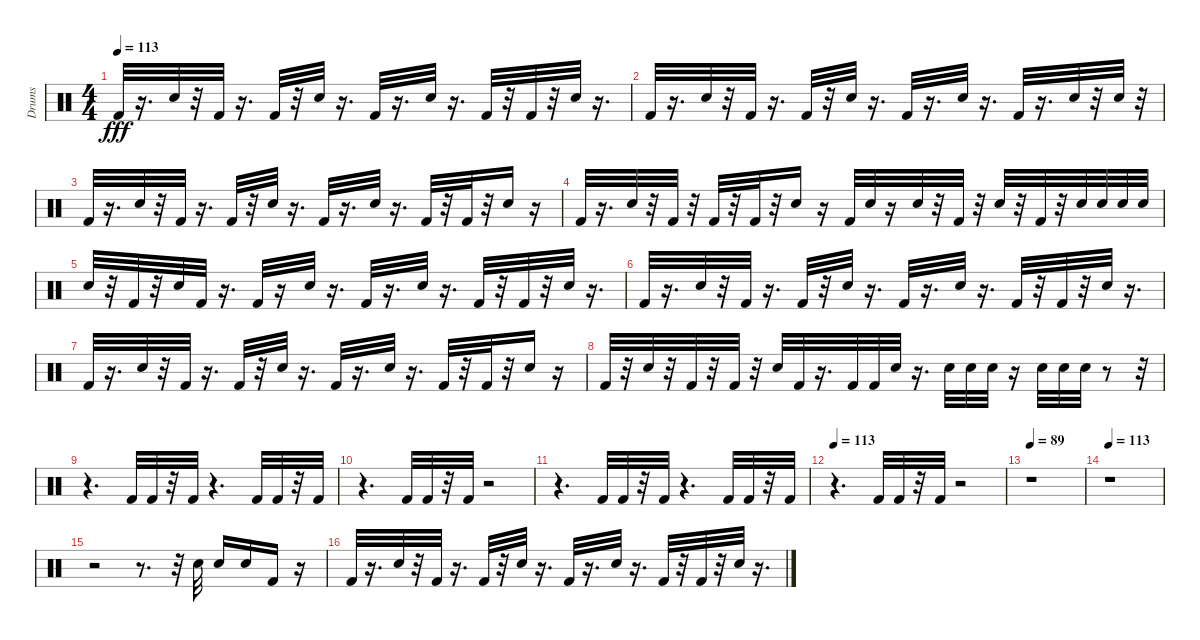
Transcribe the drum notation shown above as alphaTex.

\track ("Drums" "Drums") {instrument percussion}
\staff {score}
\articulation defaults
\ts (4 4)
\tempo 113
\clef neutral
\ks c "Kick (hit) 2".32{dy fff}
r.16{d} "Electric Snare (hit)".32 r.32 "Kick (hit) 2".32 r.16{d} "Kick (hit) 2".32 r.32 "Electric Snare (hit)".32 r.16{d} "Kick (hit) 2".32 r.16{d} "Electric Snare (hit)".32 r.16{d} "Kick (hit) 2".32 r.32 "Kick (hit) 2".32 r.32 "Electric Snare (hit)".32 r.16{d} |
"Kick (hit) 2".32 r.16{d} "Electric Snare (hit)".32 r.32 "Kick (hit) 2".32 r.16{d} "Kick (hit) 2".32 r.32 "Electric Snare (hit)".32 r.16{d} "Kick (hit) 2".32 r.16{d} "Electric Snare (hit)".32 r.16{d} "Kick (hit) 2".32 r.16{d} "Electric Snare (hit)".32 r.32 "Electric Snare (hit)".32 r.32 |
"Kick (hit) 2".32 r.16{d} "Electric Snare (hit)".32 r.32 "Kick (hit) 2".32 r.16{d} "Kick (hit) 2".32 r.32 "Electric Snare (hit)".32 r.16{d} "Kick (hit) 2".32 r.16{d} "Electric Snare (hit)".32 r.16{d} "Kick (hit) 2".32 r.32 "Kick (hit) 2".32 r.32 "Electric Snare (hit)".16 r.16 |
"Kick (hit) 2".32 r.16{d} "Electric Snare (hit)".32 r.32 "Kick (hit) 2".32 r.32 "Kick (hit) 2".32 r.32 "Kick (hit) 2".32 r.32 "Electric Snare (hit)".16 r.16 "Kick (hit) 2".32 "Electric Snare (hit)".32 r.16 "Electric Snare (hit)".32 r.32 "Kick (hit) 2".32 r.32 "Electric Snare (hit)".32 r.32 "Kick (hit) 2".32 r.32 "Electric Snare (hit)".32 "Electric Snare (hit)".32 "Electric Snare (hit)".32 "Electric Snare (hit)".32 |
"Electric Snare (hit)".32 r.32 "Kick (hit) 2".32 r.32 "Electric Snare (hit)".32 "Kick (hit) 2".32 r.16{d} "Kick (hit) 2".32 r.16 "Electric Snare (hit)".32 r.16{d} "Kick (hit) 2".32 r.16{d} "Electric Snare (hit)".32 r.16{d} "Kick (hit) 2".32 r.32 "Kick (hit) 2".32 r.32 "Electric Snare (hit)".32 r.16{d} |
"Kick (hit) 2".32 r.16{d} "Electric Snare (hit)".32 r.32 "Kick (hit) 2".32 r.16{d} "Kick (hit) 2".32 r.32 "Electric Snare (hit)".32 r.16{d} "Kick (hit) 2".32 r.16{d} "Electric Snare (hit)".32 r.16{d} "Kick (hit) 2".32 r.32 "Kick (hit) 2".32 r.32 "Electric Snare (hit)".32 r.16{d} |
"Kick (hit) 2".32 r.16{d} "Electric Snare (hit)".32 r.32 "Kick (hit) 2".32 r.16{d} "Kick (hit) 2".32 r.32 "Electric Snare (hit)".32 r.16{d} "Kick (hit) 2".32 r.16{d} "Electric Snare (hit)".32 r.16{d} "Kick (hit) 2".32 r.32 "Kick (hit) 2".32 r.32 "Electric Snare (hit)".16 r.16 |
"Kick (hit) 2".32 r.32 "Electric Snare (hit)".32 r.32 "Kick (hit) 2".32 r.32 "Kick (hit) 2".32 r.32 "Electric Snare (hit)".32 "Kick (hit) 2".32 r.16{d} "Kick (hit) 2".32 "Kick (hit) 2".32 "Electric Snare (hit)".32 r.16{d} "Electric Snare (hit)".32 "Electric Snare (hit)".32 "Electric Snare (hit)".32 r.16 "Electric Snare (hit)".32{balance 16} "Electric Snare (hit)".32 "Electric Snare (hit)".32 r.8 r.32 |
r.4{d} "Kick (hit) 2".32{balance 8} "Kick (hit) 2".32 r.32 "Kick (hit) 2".32 r.4{d} "Kick (hit) 2".32 "Kick (hit) 2".32 r.32 "Kick (hit) 2".32 |
r.4{d} "Kick (hit) 2".32 "Kick (hit) 2".32 r.32 "Kick (hit) 2".32 r.2 |
r.4{d} "Kick (hit) 2".32 "Kick (hit) 2".32 r.32 "Kick (hit) 2".32 r.4{d} "Kick (hit) 2".32 "Kick (hit) 2".32 r.32 "Kick (hit) 2".32 |
\tempo 113
r.4{d} "Kick (hit) 2".32 "Kick (hit) 2".32 r.32 "Kick (hit) 2".32 r.2 |
\tempo 89
r.1 |
\tempo 113
r.1 |
r.2 r.8{d} r.32 "Electric Snare (hit)".32 "Electric Snare (hit)".16 "Electric Snare (hit)".16 "Kick (hit) 2".16 r.16 |
"Kick (hit) 2".32 r.16{d} "Electric Snare (hit)".32 r.32 "Kick (hit) 2".32 r.16{d} "Kick (hit) 2".32 r.32 "Electric Snare (hit)".32 r.16{d} "Kick (hit) 2".32 r.16{d} "Electric Snare (hit)".32 r.16{d} "Kick (hit) 2".32 r.32 "Kick (hit) 2".32 r.32 "Electric Snare (hit)".32 r.16{d}
